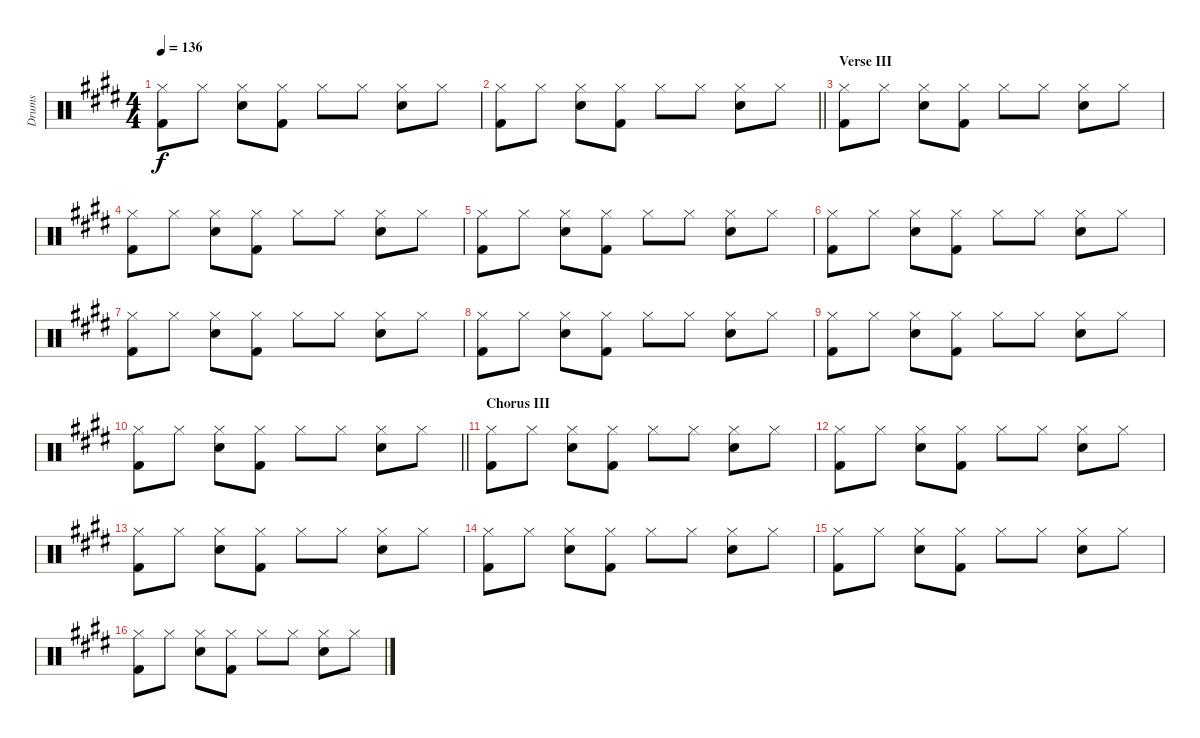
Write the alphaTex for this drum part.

\track ("Drums" "Drums") {instrument percussion}
\staff {score}
\articulation defaults
\ts (4 4)
\tempo 136
\clef neutral
\ks e
("Hi-Hat (closed)" "Kick (hit) 2").8{dy f} "Hi-Hat (closed)".8 ("Hi-Hat (closed)" "Snare (hit) 2").8 ("Hi-Hat (closed)" "Kick (hit) 2").8 "Hi-Hat (closed)".8 "Hi-Hat (closed)".8 ("Hi-Hat (closed)" "Snare (hit) 2").8 "Hi-Hat (closed)".8 |
\barLineRight lightlight
("Hi-Hat (closed)" "Kick (hit) 2").8 "Hi-Hat (closed)".8 ("Hi-Hat (closed)" "Snare (hit) 2").8 ("Hi-Hat (closed)" "Kick (hit) 2").8 "Hi-Hat (closed)".8 "Hi-Hat (closed)".8 ("Hi-Hat (closed)" "Snare (hit) 2").8 "Hi-Hat (closed)".8 |
\section ("" "Verse III")
("Hi-Hat (closed)" "Kick (hit) 2").8 "Hi-Hat (closed)".8 ("Hi-Hat (closed)" "Snare (hit) 2").8 ("Hi-Hat (closed)" "Kick (hit) 2").8 "Hi-Hat (closed)".8 "Hi-Hat (closed)".8 ("Hi-Hat (closed)" "Snare (hit) 2").8 "Hi-Hat (closed)".8 |
("Hi-Hat (closed)" "Kick (hit) 2").8 "Hi-Hat (closed)".8 ("Hi-Hat (closed)" "Snare (hit) 2").8 ("Hi-Hat (closed)" "Kick (hit) 2").8 "Hi-Hat (closed)".8 "Hi-Hat (closed)".8 ("Hi-Hat (closed)" "Snare (hit) 2").8 "Hi-Hat (closed)".8 |
("Hi-Hat (closed)" "Kick (hit) 2").8 "Hi-Hat (closed)".8 ("Hi-Hat (closed)" "Snare (hit) 2").8 ("Hi-Hat (closed)" "Kick (hit) 2").8 "Hi-Hat (closed)".8 "Hi-Hat (closed)".8 ("Hi-Hat (closed)" "Snare (hit) 2").8 "Hi-Hat (closed)".8 |
("Hi-Hat (closed)" "Kick (hit) 2").8 "Hi-Hat (closed)".8 ("Hi-Hat (closed)" "Snare (hit) 2").8 ("Hi-Hat (closed)" "Kick (hit) 2").8 "Hi-Hat (closed)".8 "Hi-Hat (closed)".8 ("Hi-Hat (closed)" "Snare (hit) 2").8 "Hi-Hat (closed)".8 |
("Hi-Hat (closed)" "Kick (hit) 2").8 "Hi-Hat (closed)".8 ("Hi-Hat (closed)" "Snare (hit) 2").8 ("Hi-Hat (closed)" "Kick (hit) 2").8 "Hi-Hat (closed)".8 "Hi-Hat (closed)".8 ("Hi-Hat (closed)" "Snare (hit) 2").8 "Hi-Hat (closed)".8 |
("Hi-Hat (closed)" "Kick (hit) 2").8 "Hi-Hat (closed)".8 ("Hi-Hat (closed)" "Snare (hit) 2").8 ("Hi-Hat (closed)" "Kick (hit) 2").8 "Hi-Hat (closed)".8 "Hi-Hat (closed)".8 ("Hi-Hat (closed)" "Snare (hit) 2").8 "Hi-Hat (closed)".8 |
("Hi-Hat (closed)" "Kick (hit) 2").8 "Hi-Hat (closed)".8 ("Hi-Hat (closed)" "Snare (hit) 2").8 ("Hi-Hat (closed)" "Kick (hit) 2").8 "Hi-Hat (closed)".8 "Hi-Hat (closed)".8 ("Hi-Hat (closed)" "Snare (hit) 2").8 "Hi-Hat (closed)".8 |
\barLineRight lightlight
("Hi-Hat (closed)" "Kick (hit) 2").8 "Hi-Hat (closed)".8 ("Hi-Hat (closed)" "Snare (hit) 2").8 ("Hi-Hat (closed)" "Kick (hit) 2").8 "Hi-Hat (closed)".8 "Hi-Hat (closed)".8 ("Hi-Hat (closed)" "Snare (hit) 2").8 "Hi-Hat (closed)".8 |
\section ("" "Chorus III")
("Hi-Hat (closed)" "Kick (hit) 2").8 "Hi-Hat (closed)".8 ("Hi-Hat (closed)" "Snare (hit) 2").8 ("Hi-Hat (closed)" "Kick (hit) 2").8 "Hi-Hat (closed)".8 "Hi-Hat (closed)".8 ("Hi-Hat (closed)" "Snare (hit) 2").8 "Hi-Hat (closed)".8 |
("Hi-Hat (closed)" "Kick (hit) 2").8 "Hi-Hat (closed)".8 ("Hi-Hat (closed)" "Snare (hit) 2").8 ("Hi-Hat (closed)" "Kick (hit) 2").8 "Hi-Hat (closed)".8 "Hi-Hat (closed)".8 ("Hi-Hat (closed)" "Snare (hit) 2").8 "Hi-Hat (closed)".8 |
("Hi-Hat (closed)" "Kick (hit) 2").8 "Hi-Hat (closed)".8 ("Hi-Hat (closed)" "Snare (hit) 2").8 ("Hi-Hat (closed)" "Kick (hit) 2").8 "Hi-Hat (closed)".8 "Hi-Hat (closed)".8 ("Hi-Hat (closed)" "Snare (hit) 2").8 "Hi-Hat (closed)".8 |
("Hi-Hat (closed)" "Kick (hit) 2").8 "Hi-Hat (closed)".8 ("Hi-Hat (closed)" "Snare (hit) 2").8 ("Hi-Hat (closed)" "Kick (hit) 2").8 "Hi-Hat (closed)".8 "Hi-Hat (closed)".8 ("Hi-Hat (closed)" "Snare (hit) 2").8 "Hi-Hat (closed)".8 |
("Hi-Hat (closed)" "Kick (hit) 2").8 "Hi-Hat (closed)".8 ("Hi-Hat (closed)" "Snare (hit) 2").8 ("Hi-Hat (closed)" "Kick (hit) 2").8 "Hi-Hat (closed)".8 "Hi-Hat (closed)".8 ("Hi-Hat (closed)" "Snare (hit) 2").8 "Hi-Hat (closed)".8 |
("Hi-Hat (closed)" "Kick (hit) 2").8 "Hi-Hat (closed)".8 ("Hi-Hat (closed)" "Snare (hit) 2").8 ("Hi-Hat (closed)" "Kick (hit) 2").8 "Hi-Hat (closed)".8 "Hi-Hat (closed)".8 ("Hi-Hat (closed)" "Snare (hit) 2").8 "Hi-Hat (closed)".8
